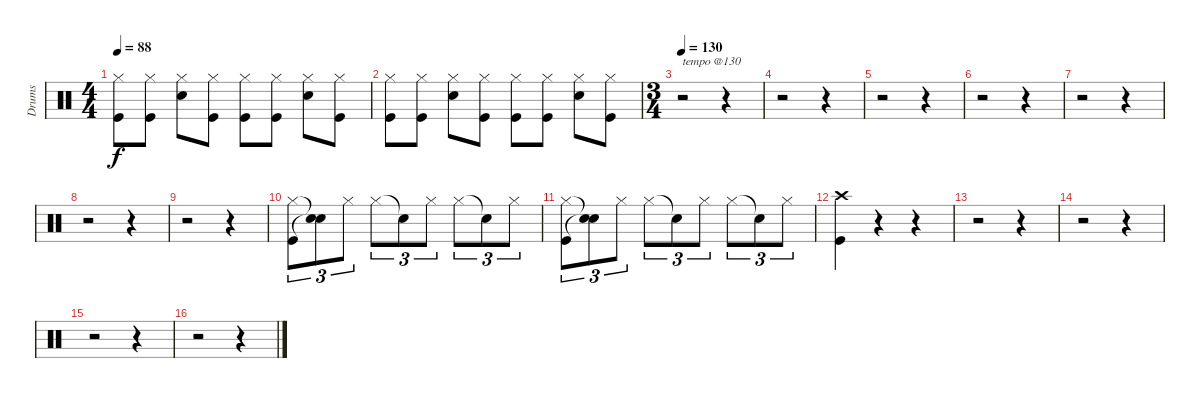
\track ("Drums" "Drums") {instrument percussion}
\staff {score}
\articulation defaults
\ts (4 4)
\tempo 88
\clef neutral
\ks c
("Hi-Hat (closed)" "Kick (hit)").8{dy f} ("Hi-Hat (closed)" "Kick (hit)").8 ("Hi-Hat (closed)" "Snare (hit) 2").8 ("Hi-Hat (closed)" "Kick (hit)").8 ("Hi-Hat (closed)" "Kick (hit)").8 ("Hi-Hat (closed)" "Kick (hit)").8 ("Hi-Hat (closed)" "Snare (hit) 2").8 ("Hi-Hat (closed)" "Kick (hit)").8 |
("Hi-Hat (closed)" "Kick (hit)").8 ("Hi-Hat (closed)" "Kick (hit)").8 ("Hi-Hat (closed)" "Snare (hit) 2").8 ("Hi-Hat (closed)" "Kick (hit)").8 ("Hi-Hat (closed)" "Kick (hit)").8 ("Hi-Hat (closed)" "Kick (hit)").8 ("Hi-Hat (closed)" "Snare (hit) 2").8 ("Hi-Hat (closed)" "Kick (hit)").8 |
\ts (3 4)
\tempo 130
r.2{txt "tempo @130"} r.4 |
r.2 r.4 |
r.2 r.4 |
r.2 r.4 |
r.2 r.4 |
r.2 r.4 |
r.2 r.4 |
("Hi-Hat (closed)" "Kick (hit)").8{tu (3 2)} ("Snare (hit)"{t} "Snare (hit)"{t}).8{tu (3 2)} "Hi-Hat (closed)".8{tu (3 2)} "Hi-Hat (closed)".8{tu (3 2)} "Snare (hit)"{t}.8{tu (3 2)} "Hi-Hat (closed)".8{tu (3 2)} "Hi-Hat (closed)".8{tu (3 2)} "Snare (hit)"{t}.8{tu (3 2)} "Hi-Hat (closed)".8{tu (3 2)} |
("Hi-Hat (closed)" "Kick (hit)").8{tu (3 2)} ("Snare (hit)"{t} "Snare (hit)"{t}).8{tu (3 2)} "Hi-Hat (closed)".8{tu (3 2)} "Hi-Hat (closed)".8{tu (3 2)} "Snare (hit)"{t}.8{tu (3 2)} "Hi-Hat (closed)".8{tu (3 2)} "Hi-Hat (closed)".8{tu (3 2)} "Snare (hit)"{t}.8{tu (3 2)} "Hi-Hat (closed)".8{tu (3 2)} |
("Crash high (hit)" "Kick (hit)").4 r.4 r.4 |
r.2 r.4 |
r.2 r.4 |
r.2 r.4 |
r.2 r.4
